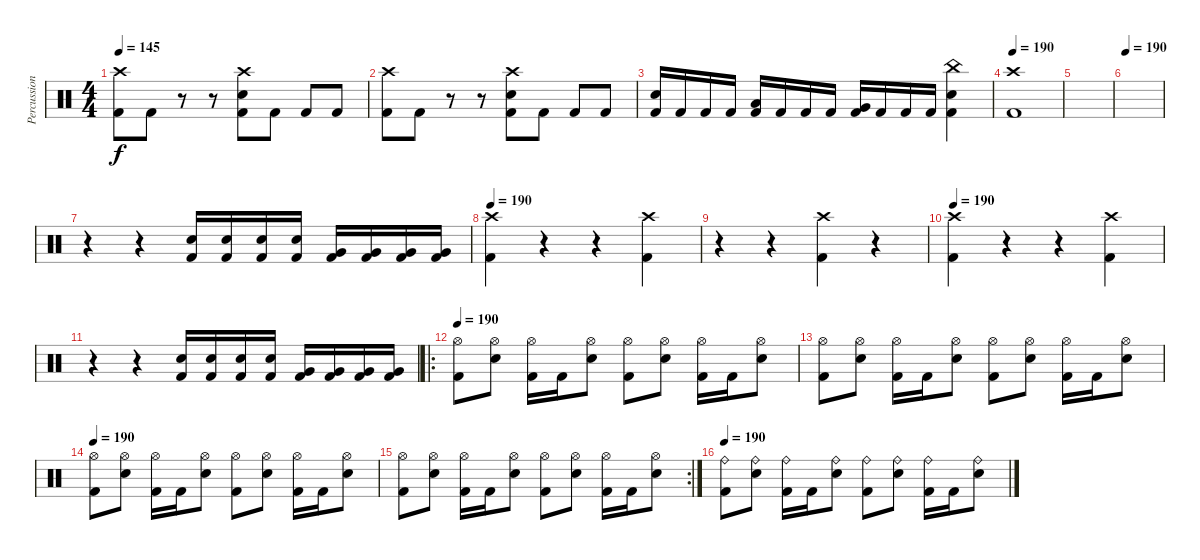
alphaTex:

\track ("Percussion" "Percussion") {instrument percussion}
\staff {score}
\articulation defaults
\ts (4 4)
\tempo 145
\clef neutral
\ks c
("Crash high (hit)" "Kick (hit) 2").8{dy f} "Kick (hit) 2".8 r.8 r.8 ("Crash high (hit)" "Electric Snare (hit)" "Kick (hit) 2").8 "Kick (hit) 2".8 "Kick (hit) 2".8 "Kick (hit) 2".8 |
("Crash high (hit)" "Kick (hit) 2").8 "Kick (hit) 2".8 r.8 r.8 ("Crash high (hit)" "Electric Snare (hit)" "Kick (hit) 2").8 "Kick (hit) 2".8 "Kick (hit) 2".8 "Kick (hit) 2".8 |
("Electric Snare (hit)" "Kick (hit) 2").16 "Kick (hit) 2".16 "Kick (hit) 2".16 "Kick (hit) 2".16 ("Low Tom (hit)" "Kick (hit) 2").16 "Kick (hit) 2".16 "Kick (hit) 2".16 "Kick (hit) 2".16 ("Very Low Tom (hit)" "Kick (hit) 2").16 "Kick (hit) 2".16 "Kick (hit) 2".16 "Kick (hit) 2".16 ("China (hit)" "Electric Snare (hit)" "Kick (hit) 2").4 |
\tempo 190
("Crash high (hit)" "Kick (hit) 2").1 |
|
\tempo 190
|
r.4 r.4 ("Electric Snare (hit)" "Kick (hit) 2").16 ("Electric Snare (hit)" "Kick (hit) 2").16 ("Electric Snare (hit)" "Kick (hit) 2").16 ("Electric Snare (hit)" "Kick (hit) 2").16 ("Very Low Tom (hit)" "Kick (hit) 2").16 ("Very Low Tom (hit)" "Kick (hit) 2").16 ("Very Low Tom (hit)" "Kick (hit) 2").16 ("Very Low Tom (hit)" "Kick (hit) 2").16 |
\tempo 190
("Crash high (hit)" "Kick (hit) 2").4 r.4 r.4 ("Crash high (hit)" "Kick (hit) 2").4 |
r.4 r.4 ("Crash high (hit)" "Kick (hit) 2").4 r.4 |
\tempo 190
("Crash high (hit)" "Kick (hit) 2").4 r.4 r.4 ("Crash high (hit)" "Kick (hit) 2").4 |
r.4 r.4 ("Electric Snare (hit)" "Kick (hit) 2").16 ("Electric Snare (hit)" "Kick (hit) 2").16 ("Electric Snare (hit)" "Kick (hit) 2").16 ("Electric Snare (hit)" "Kick (hit) 2").16 ("Very Low Tom (hit)" "Kick (hit) 2").16 ("Very Low Tom (hit)" "Kick (hit) 2").16 ("Very Low Tom (hit)" "Kick (hit) 2").16 ("Very Low Tom (hit)" "Kick (hit) 2").16 |
\ro
\tempo 190
("Hi-Hat (open)" "Kick (hit) 2").8 ("Hi-Hat (open)" "Electric Snare (hit)").8 ("Hi-Hat (open)" "Kick (hit) 2").16 "Kick (hit) 2".16 ("Hi-Hat (open)" "Electric Snare (hit)").8 ("Hi-Hat (open)" "Kick (hit) 2").8 ("Hi-Hat (open)" "Electric Snare (hit)").8 ("Hi-Hat (open)" "Kick (hit) 2").16 "Kick (hit) 2".16 ("Hi-Hat (open)" "Electric Snare (hit)").8 |
("Hi-Hat (open)" "Kick (hit) 2").8 ("Hi-Hat (open)" "Electric Snare (hit)").8 ("Hi-Hat (open)" "Kick (hit) 2").16 "Kick (hit) 2".16 ("Hi-Hat (open)" "Electric Snare (hit)").8 ("Hi-Hat (open)" "Kick (hit) 2").8 ("Hi-Hat (open)" "Electric Snare (hit)").8 ("Hi-Hat (open)" "Kick (hit) 2").16 "Kick (hit) 2".16 ("Hi-Hat (open)" "Electric Snare (hit)").8 |
\tempo 190
("Hi-Hat (open)" "Kick (hit) 2").8 ("Hi-Hat (open)" "Electric Snare (hit)").8 ("Hi-Hat (open)" "Kick (hit) 2").16 "Kick (hit) 2".16 ("Hi-Hat (open)" "Electric Snare (hit)").8 ("Hi-Hat (open)" "Kick (hit) 2").8 ("Hi-Hat (open)" "Electric Snare (hit)").8 ("Hi-Hat (open)" "Kick (hit) 2").16 "Kick (hit) 2".16 ("Hi-Hat (open)" "Electric Snare (hit)").8 |
\rc 2
("Hi-Hat (open)" "Kick (hit) 2").8 ("Hi-Hat (open)" "Electric Snare (hit)").8 ("Hi-Hat (open)" "Kick (hit) 2").16 "Kick (hit) 2".16 ("Hi-Hat (open)" "Electric Snare (hit)").8 ("Hi-Hat (open)" "Kick (hit) 2").8 ("Hi-Hat (open)" "Electric Snare (hit)").8 ("Hi-Hat (open)" "Kick (hit) 2").16 "Kick (hit) 2".16 ("Hi-Hat (open)" "Electric Snare (hit)").8 |
\tempo 190
("Ride (bell)" "Kick (hit) 2").8 ("Ride (bell)" "Electric Snare (hit)").8 ("Ride (bell)" "Kick (hit) 2").16 "Kick (hit) 2".16 ("Ride (bell)" "Electric Snare (hit)").8 ("Ride (bell)" "Kick (hit) 2").8 ("Ride (bell)" "Electric Snare (hit)").8 ("Ride (bell)" "Kick (hit) 2").16 "Kick (hit) 2".16 ("Ride (bell)" "Electric Snare (hit)").8
